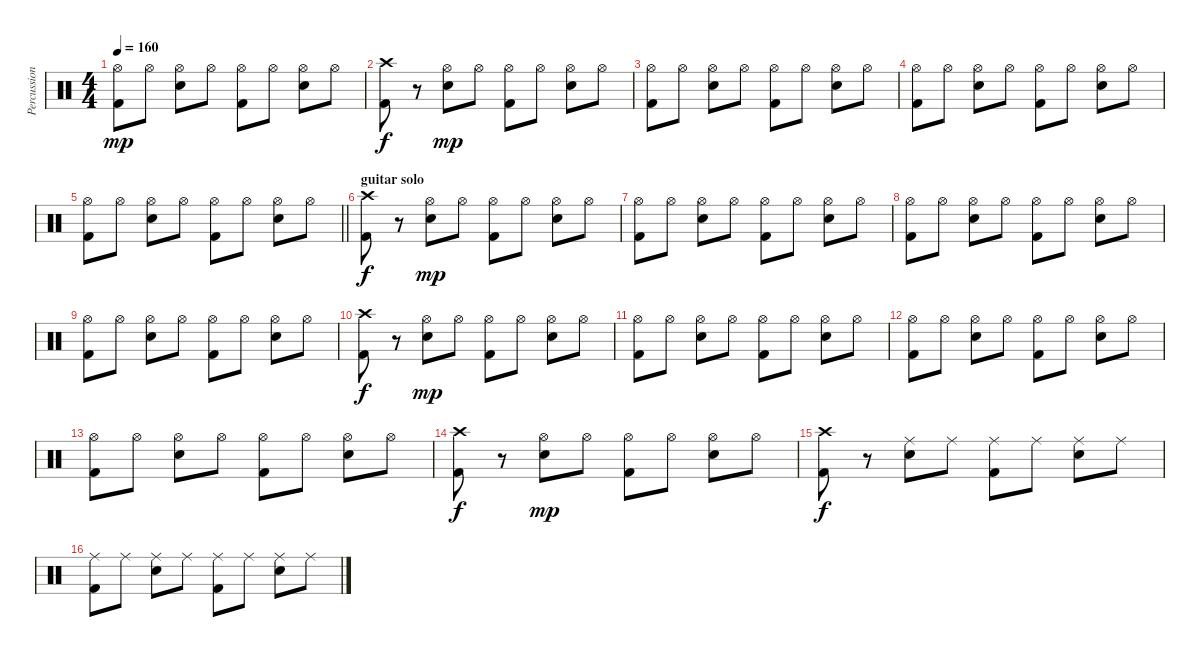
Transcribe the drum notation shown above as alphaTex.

\track ("Percussion - live 1983" "Percussion") {mute instrument percussion}
\staff {score}
\articulation defaults
\ts (4 4)
\tempo 160
\clef neutral
\ks c
("Hi-Hat (open)" "Kick (hit) 2").8{dy mp} "Hi-Hat (open)".8 ("Hi-Hat (open)" "Snare (hit) 2").8 "Hi-Hat (open)".8 ("Hi-Hat (open)" "Kick (hit) 2").8 "Hi-Hat (open)".8 ("Hi-Hat (open)" "Snare (hit) 2").8 "Hi-Hat (open)".8 |
("Crash high (hit)" "Kick (hit) 2").8{dy f} r.8 ("Hi-Hat (open)" "Snare (hit) 2").8{dy mp} "Hi-Hat (open)".8 ("Hi-Hat (open)" "Kick (hit) 2").8 "Hi-Hat (open)".8 ("Hi-Hat (open)" "Snare (hit) 2").8 "Hi-Hat (open)".8 |
("Hi-Hat (open)" "Kick (hit) 2").8 "Hi-Hat (open)".8 ("Hi-Hat (open)" "Snare (hit) 2").8 "Hi-Hat (open)".8 ("Hi-Hat (open)" "Kick (hit) 2").8 "Hi-Hat (open)".8 ("Hi-Hat (open)" "Snare (hit) 2").8 "Hi-Hat (open)".8 |
("Hi-Hat (open)" "Kick (hit) 2").8 "Hi-Hat (open)".8 ("Hi-Hat (open)" "Snare (hit) 2").8 "Hi-Hat (open)".8 ("Hi-Hat (open)" "Kick (hit) 2").8 "Hi-Hat (open)".8 ("Hi-Hat (open)" "Snare (hit) 2").8 "Hi-Hat (open)".8 |
\barLineRight lightlight
("Hi-Hat (open)" "Kick (hit) 2").8 "Hi-Hat (open)".8 ("Hi-Hat (open)" "Snare (hit) 2").8 "Hi-Hat (open)".8 ("Hi-Hat (open)" "Kick (hit) 2").8 "Hi-Hat (open)".8 ("Hi-Hat (open)" "Snare (hit) 2").8 "Hi-Hat (open)".8 |
\section ("" "guitar solo")
("Crash high (hit)" "Kick (hit) 2").8{dy f} r.8 ("Hi-Hat (open)" "Snare (hit) 2").8{dy mp} "Hi-Hat (open)".8 ("Hi-Hat (open)" "Kick (hit) 2").8 "Hi-Hat (open)".8 ("Hi-Hat (open)" "Snare (hit) 2").8 "Hi-Hat (open)".8 |
("Hi-Hat (open)" "Kick (hit) 2").8 "Hi-Hat (open)".8 ("Hi-Hat (open)" "Snare (hit) 2").8 "Hi-Hat (open)".8 ("Hi-Hat (open)" "Kick (hit) 2").8 "Hi-Hat (open)".8 ("Hi-Hat (open)" "Snare (hit) 2").8 "Hi-Hat (open)".8 |
("Hi-Hat (open)" "Kick (hit) 2").8 "Hi-Hat (open)".8 ("Hi-Hat (open)" "Snare (hit) 2").8 "Hi-Hat (open)".8 ("Hi-Hat (open)" "Kick (hit) 2").8 "Hi-Hat (open)".8 ("Hi-Hat (open)" "Snare (hit) 2").8 "Hi-Hat (open)".8 |
("Hi-Hat (open)" "Kick (hit) 2").8 "Hi-Hat (open)".8 ("Hi-Hat (open)" "Snare (hit) 2").8 "Hi-Hat (open)".8 ("Hi-Hat (open)" "Kick (hit) 2").8 "Hi-Hat (open)".8 ("Hi-Hat (open)" "Snare (hit) 2").8 "Hi-Hat (open)".8 |
("Crash high (hit)" "Kick (hit) 2").8{dy f} r.8 ("Hi-Hat (open)" "Snare (hit) 2").8{dy mp} "Hi-Hat (open)".8 ("Hi-Hat (open)" "Kick (hit) 2").8 "Hi-Hat (open)".8 ("Hi-Hat (open)" "Snare (hit) 2").8 "Hi-Hat (open)".8 |
("Hi-Hat (open)" "Kick (hit) 2").8 "Hi-Hat (open)".8 ("Hi-Hat (open)" "Snare (hit) 2").8 "Hi-Hat (open)".8 ("Hi-Hat (open)" "Kick (hit) 2").8 "Hi-Hat (open)".8 ("Hi-Hat (open)" "Snare (hit) 2").8 "Hi-Hat (open)".8 |
("Hi-Hat (open)" "Kick (hit) 2").8 "Hi-Hat (open)".8 ("Hi-Hat (open)" "Snare (hit) 2").8 "Hi-Hat (open)".8 ("Hi-Hat (open)" "Kick (hit) 2").8 "Hi-Hat (open)".8 ("Hi-Hat (open)" "Snare (hit) 2").8 "Hi-Hat (open)".8 |
("Hi-Hat (open)" "Kick (hit) 2").8 "Hi-Hat (open)".8 ("Hi-Hat (open)" "Snare (hit) 2").8 "Hi-Hat (open)".8 ("Hi-Hat (open)" "Kick (hit) 2").8 "Hi-Hat (open)".8 ("Hi-Hat (open)" "Snare (hit) 2").8 "Hi-Hat (open)".8 |
("Crash high (hit)" "Kick (hit) 2").8{dy f} r.8 ("Hi-Hat (open)" "Snare (hit) 2").8{dy mp} "Hi-Hat (open)".8 ("Hi-Hat (open)" "Kick (hit) 2").8 "Hi-Hat (open)".8 ("Hi-Hat (open)" "Snare (hit) 2").8 "Hi-Hat (open)".8 |
("Crash high (hit)" "Kick (hit) 2").8{dy f} r.8 ("Ride (middle)" "Snare (hit) 2").8 "Ride (middle)".8 ("Ride (middle)" "Kick (hit) 2").8 "Ride (middle)".8 ("Ride (middle)" "Snare (hit) 2").8 "Ride (middle)".8 |
("Ride (middle)" "Kick (hit) 2").8 "Ride (middle)".8 ("Ride (middle)" "Snare (hit) 2").8 "Ride (middle)".8 ("Ride (middle)" "Kick (hit) 2").8 "Ride (middle)".8 ("Ride (middle)" "Snare (hit) 2").8 "Ride (middle)".8
